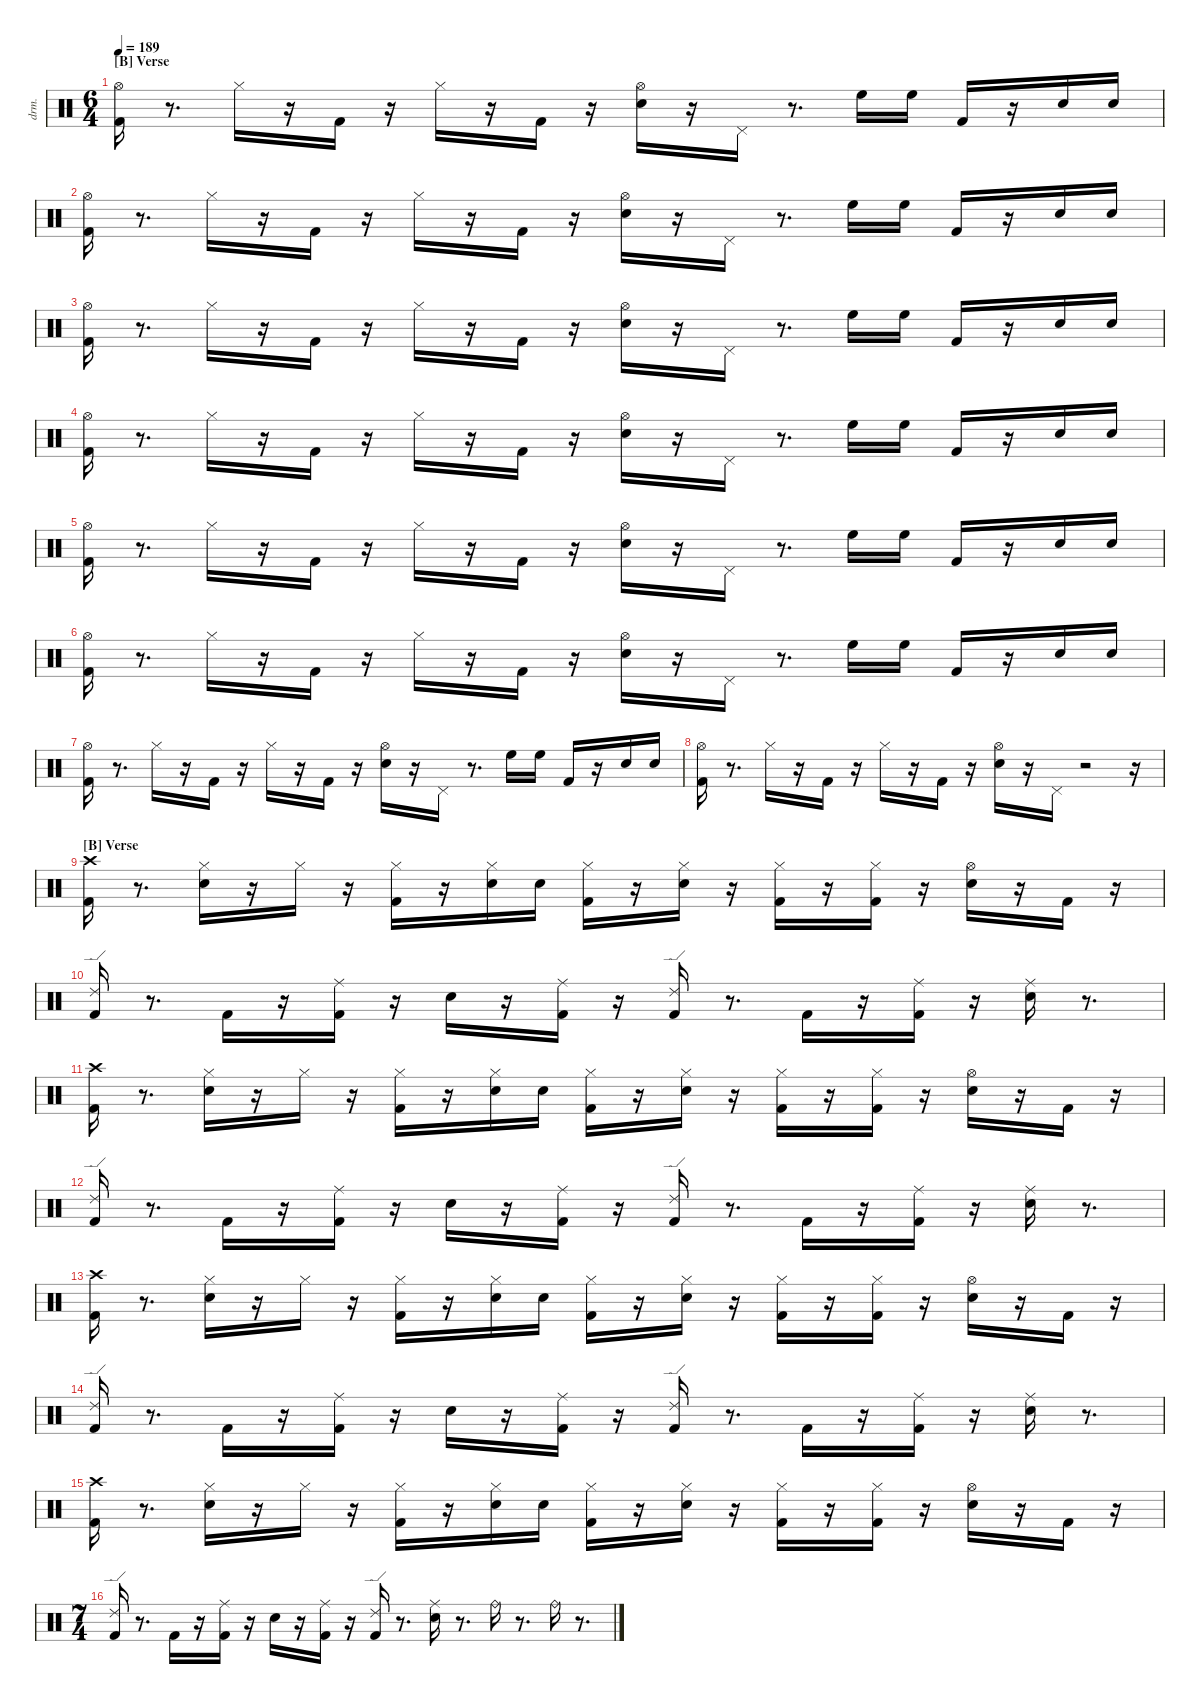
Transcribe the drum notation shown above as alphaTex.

\defaultSystemsLayout 4
\hideDynamics
\bracketExtendMode nobrackets
\track ("EZdrummer 3" "drm.") {instrument percussion}
\staff {score}
\articulation defaults
\ts (6 4)
\section ("B" "Verse")
\tempo 189
\clef neutral
\ks aminor
("Kick (hit) 2" "Hi-Hat (open)"{acc #}).16{dy fff} r.8{d} "Hi-Hat (closed)"{acc #}.16{dy ff} r.16 "Kick (hit) 2".16{dy f} r.16 "Hi-Hat (closed)"{acc #}.16{dy ff} r.16 "Kick (hit) 2".16 r.16 ("Snare (hit) 2" "Hi-Hat (open)"{acc #}).16{dy fff} r.16 "Pedal Hi-Hat (hit)"{acc #}.16{dy ff} r.8{d} "High Floor Tom (hit)".16{dy f} "High Floor Tom (hit)".16{dy mp} "Kick (hit) 2".16{dy ff} r.16 "Snare (hit) 2".16{dy pp} "Snare (hit) 2".16{dy ppp} |
("Kick (hit) 2" "Hi-Hat (open)"{acc #}).16{dy fff} r.8{d} "Hi-Hat (closed)"{acc #}.16{dy ff} r.16 "Kick (hit) 2".16{dy f} r.16 "Hi-Hat (closed)"{acc #}.16{dy ff} r.16 "Kick (hit) 2".16 r.16 ("Snare (hit) 2" "Hi-Hat (open)"{acc #}).16{dy fff} r.16 "Pedal Hi-Hat (hit)"{acc #}.16{dy ff} r.8{d} "High Floor Tom (hit)".16{dy f} "High Floor Tom (hit)".16{dy mp} "Kick (hit) 2".16{dy ff} r.16 "Snare (hit) 2".16{dy pp} "Snare (hit) 2".16{dy ppp} |
("Kick (hit) 2" "Hi-Hat (open)"{acc #}).16{dy ff} r.8{d} "Hi-Hat (closed)"{acc #}.16 r.16 "Kick (hit) 2".16{dy f} r.16 "Hi-Hat (closed)"{acc #}.16{dy ff} r.16 "Kick (hit) 2".16 r.16 ("Snare (hit) 2" "Hi-Hat (open)"{acc #}).16{dy fff} r.16 "Pedal Hi-Hat (hit)"{acc #}.16{dy ff} r.8{d} "High Floor Tom (hit)".16{dy f} "High Floor Tom (hit)".16{dy mp} "Kick (hit) 2".16{dy ff} r.16 "Snare (hit) 2".16{dy pp} "Snare (hit) 2".16{dy ppp} |
("Kick (hit) 2" "Hi-Hat (open)"{acc #}).16{dy fff} r.8{d} "Hi-Hat (closed)"{acc #}.16{dy ff} r.16 "Kick (hit) 2".16{dy f} r.16 "Hi-Hat (closed)"{acc #}.16{dy ff} r.16 "Kick (hit) 2".16 r.16 ("Snare (hit) 2" "Hi-Hat (open)"{acc #}).16{dy fff} r.16 "Pedal Hi-Hat (hit)"{acc #}.16{dy ff} r.8{d} "High Floor Tom (hit)".16{dy f} "High Floor Tom (hit)".16{dy mp} "Kick (hit) 2".16{dy ff} r.16 "Snare (hit) 2".16{dy pp} "Snare (hit) 2".16{dy ppp} |
("Kick (hit) 2" "Hi-Hat (open)"{acc #}).16{dy fff} r.8{d} "Hi-Hat (closed)"{acc #}.16{dy ff} r.16 "Kick (hit) 2".16{dy f} r.16 "Hi-Hat (closed)"{acc #}.16{dy ff} r.16 "Kick (hit) 2".16 r.16 ("Snare (hit) 2" "Hi-Hat (open)"{acc #}).16{dy fff} r.16 "Pedal Hi-Hat (hit)"{acc #}.16{dy ff} r.8{d} "High Floor Tom (hit)".16{dy f} "High Floor Tom (hit)".16{dy mp} "Kick (hit) 2".16{dy ff} r.16 "Snare (hit) 2".16{dy pp} "Snare (hit) 2".16{dy ppp} |
("Kick (hit) 2" "Hi-Hat (open)"{acc #}).16{dy fff} r.8{d} "Hi-Hat (closed)"{acc #}.16{dy ff} r.16 "Kick (hit) 2".16{dy f} r.16 "Hi-Hat (closed)"{acc #}.16{dy ff} r.16 "Kick (hit) 2".16 r.16 ("Snare (hit) 2" "Hi-Hat (open)"{acc #}).16{dy fff} r.16 "Pedal Hi-Hat (hit)"{acc #}.16{dy ff} r.8{d} "High Floor Tom (hit)".16{dy f} "High Floor Tom (hit)".16{dy mp} "Kick (hit) 2".16{dy ff} r.16 "Snare (hit) 2".16{dy pp} "Snare (hit) 2".16{dy ppp} |
("Kick (hit) 2" "Hi-Hat (open)"{acc #}).16{dy ff} r.8{d} "Hi-Hat (closed)"{acc #}.16 r.16 "Kick (hit) 2".16{dy f} r.16 "Hi-Hat (closed)"{acc #}.16{dy ff} r.16 "Kick (hit) 2".16 r.16 ("Snare (hit) 2" "Hi-Hat (open)"{acc #}).16{dy fff} r.16 "Pedal Hi-Hat (hit)"{acc #}.16{dy ff} r.8{d} "High Floor Tom (hit)".16{dy f} "High Floor Tom (hit)".16{dy mp} "Kick (hit) 2".16{dy ff} r.16 "Snare (hit) 2".16{dy pp} "Snare (hit) 2".16{dy ppp} |
("Kick (hit) 2" "Hi-Hat (open)"{acc #}).16{dy fff} r.8{d} "Hi-Hat (closed)"{acc #}.16{dy ff} r.16 "Kick (hit) 2".16{dy f} r.16 "Hi-Hat (closed)"{acc #}.16{dy ff} r.16 "Kick (hit) 2".16 r.16 ("Snare (hit) 2" "Hi-Hat (open)"{acc #}).16{dy fff} r.16 "Pedal Hi-Hat (hit)"{acc #}.16{dy ff} r.2 r.16 |
\section ("B" "Verse")
("Kick (hit) 2" "Crash high (hit)"{acc #}).16 r.8{d} ("Snare (hit) 2" "Hi-Hat (closed)"{acc #}).16 r.16 "Hi-Hat (closed)"{acc #}.16{dy pp} r.16 ("Kick (hit) 2" "Hi-Hat (closed)"{acc #}).16{dy ff} r.16 ("Snare (hit) 2" "Hi-Hat (closed)"{acc #}).16{dy mp} "Snare (hit) 2".16{dy pp} ("Kick (hit) 2" "Hi-Hat (closed)"{acc #}).16{dy fff} r.16 ("Snare (hit) 2" "Hi-Hat (closed)"{acc #}).16{dy ff} r.16 ("Kick (hit) 2" "Hi-Hat (closed)"{acc #}).16{dy mf} r.16 ("Kick (hit) 2" "Hi-Hat (closed)"{acc #}).16{dy ff} r.16 ("Snare (hit) 2" "Hi-Hat (open)"{acc #}).16 r.16 "Kick (hit) 2".16{dy mf} r.16 |
("Kick (hit) 2" "Ride (edge) 2").16{dy fff} r.8{d} "Kick (hit) 2".16{dy mp} r.16 ("Kick (hit) 2" "Ride (middle)"{acc #}).16{dy ff} r.16 "Snare (hit) 2".16 r.16 ("Kick (hit) 2" "Ride (middle)"{acc #}).16{dy p} r.16 ("Kick (hit) 2" "Ride (edge) 2").16{dy fff} r.8{d} "Kick (hit) 2".16{dy mf} r.16 ("Kick (hit) 2" "Ride (middle)"{acc #}).16{dy f} r.16 ("Snare (hit) 2" "Ride (middle)"{acc #}).16{dy ff} r.8{d} |
("Kick (hit) 2" "Crash high (hit)"{acc #}).16 r.8{d} ("Snare (hit) 2" "Hi-Hat (closed)"{acc #}).16 r.16 "Hi-Hat (closed)"{acc #}.16{dy pp} r.16 ("Kick (hit) 2" "Hi-Hat (closed)"{acc #}).16{dy ff} r.16 ("Snare (hit) 2" "Hi-Hat (closed)"{acc #}).16{dy mp} "Snare (hit) 2".16{dy pp} ("Kick (hit) 2" "Hi-Hat (closed)"{acc #}).16{dy ff} r.16 ("Snare (hit) 2" "Hi-Hat (closed)"{acc #}).16 r.16 ("Kick (hit) 2" "Hi-Hat (closed)"{acc #}).16{dy mf} r.16 ("Kick (hit) 2" "Hi-Hat (closed)"{acc #}).16{dy ff} r.16 ("Snare (hit) 2" "Hi-Hat (open)"{acc #}).16 r.16 "Kick (hit) 2".16{dy mf} r.16 |
("Kick (hit) 2" "Ride (edge) 2").16{dy fff} r.8{d} "Kick (hit) 2".16{dy mp} r.16 ("Kick (hit) 2" "Ride (middle)"{acc #}).16{dy f} r.16 "Snare (hit) 2".16{dy ff} r.16 ("Kick (hit) 2" "Ride (middle)"{acc #}).16{dy p} r.16 ("Kick (hit) 2" "Ride (edge) 2").16{dy fff} r.8{d} "Kick (hit) 2".16{dy mf} r.16 ("Kick (hit) 2" "Ride (middle)"{acc #}).16{dy f} r.16 ("Snare (hit) 2" "Ride (middle)"{acc #}).16 r.8{d} |
("Kick (hit) 2" "Crash high (hit)"{acc #}).16{dy ff} r.8{d} ("Snare (hit) 2" "Hi-Hat (closed)"{acc #}).16 r.16 "Hi-Hat (closed)"{acc #}.16{dy pp} r.16 ("Kick (hit) 2" "Hi-Hat (closed)"{acc #}).16{dy ff} r.16 ("Snare (hit) 2" "Hi-Hat (closed)"{acc #}).16{dy mp} "Snare (hit) 2".16{dy pp} ("Kick (hit) 2" "Hi-Hat (closed)"{acc #}).16{dy ff} r.16 ("Snare (hit) 2" "Hi-Hat (closed)"{acc #}).16 r.16 ("Kick (hit) 2" "Hi-Hat (closed)"{acc #}).16{dy mf} r.16 ("Kick (hit) 2" "Hi-Hat (closed)"{acc #}).16{dy ff} r.16 ("Snare (hit) 2" "Hi-Hat (open)"{acc #}).16 r.16 "Kick (hit) 2".16{dy mf} r.16 |
("Kick (hit) 2" "Ride (edge) 2").16{dy fff} r.8{d} "Kick (hit) 2".16{dy mp} r.16 ("Kick (hit) 2" "Ride (middle)"{acc #}).16{dy ff} r.16 "Snare (hit) 2".16 r.16 ("Kick (hit) 2" "Ride (middle)"{acc #}).16{dy p} r.16 ("Kick (hit) 2" "Ride (edge) 2").16{dy fff} r.8{d} "Kick (hit) 2".16{dy mf} r.16 ("Kick (hit) 2" "Ride (middle)"{acc #}).16{dy f} r.16 ("Snare (hit) 2" "Ride (middle)"{acc #}).16{dy ff} r.8{d} |
("Kick (hit) 2" "Crash high (hit)"{acc #}).16 r.8{d} ("Snare (hit) 2" "Hi-Hat (closed)"{acc #}).16 r.16 "Hi-Hat (closed)"{acc #}.16{dy pp} r.16 ("Kick (hit) 2" "Hi-Hat (closed)"{acc #}).16{dy ff} r.16 ("Snare (hit) 2" "Hi-Hat (closed)"{acc #}).16{dy mp} "Snare (hit) 2".16{dy pp} ("Kick (hit) 2" "Hi-Hat (closed)"{acc #}).16{dy fff} r.16 ("Snare (hit) 2" "Hi-Hat (closed)"{acc #}).16{dy pp} r.16 ("Kick (hit) 2" "Hi-Hat (closed)"{acc #}).16{dy mf} r.16 ("Kick (hit) 2" "Hi-Hat (closed)"{acc #}).16{dy ff} r.16 ("Snare (hit) 2" "Hi-Hat (open)"{acc #}).16 r.16 "Kick (hit) 2".16{dy mf} r.16 |
\ts (7 4)
("Kick (hit) 2" "Ride (edge) 2").16{dy fff} r.8{d} "Kick (hit) 2".16{dy mp} r.16 ("Kick (hit) 2" "Ride (middle)"{acc #}).16{dy f} r.16 "Snare (hit) 2".16{dy ff} r.16 ("Kick (hit) 2" "Ride (middle)"{acc #}).16{dy p} r.16 ("Kick (hit) 2" "Ride (edge) 2").16{dy fff} r.8{d} ("Snare (hit) 2" "Ride (middle)"{acc #}).16 r.8{d} "Ride (bell)".16 r.8{d} "Ride (bell)".16{dy ff} r.8{d}
